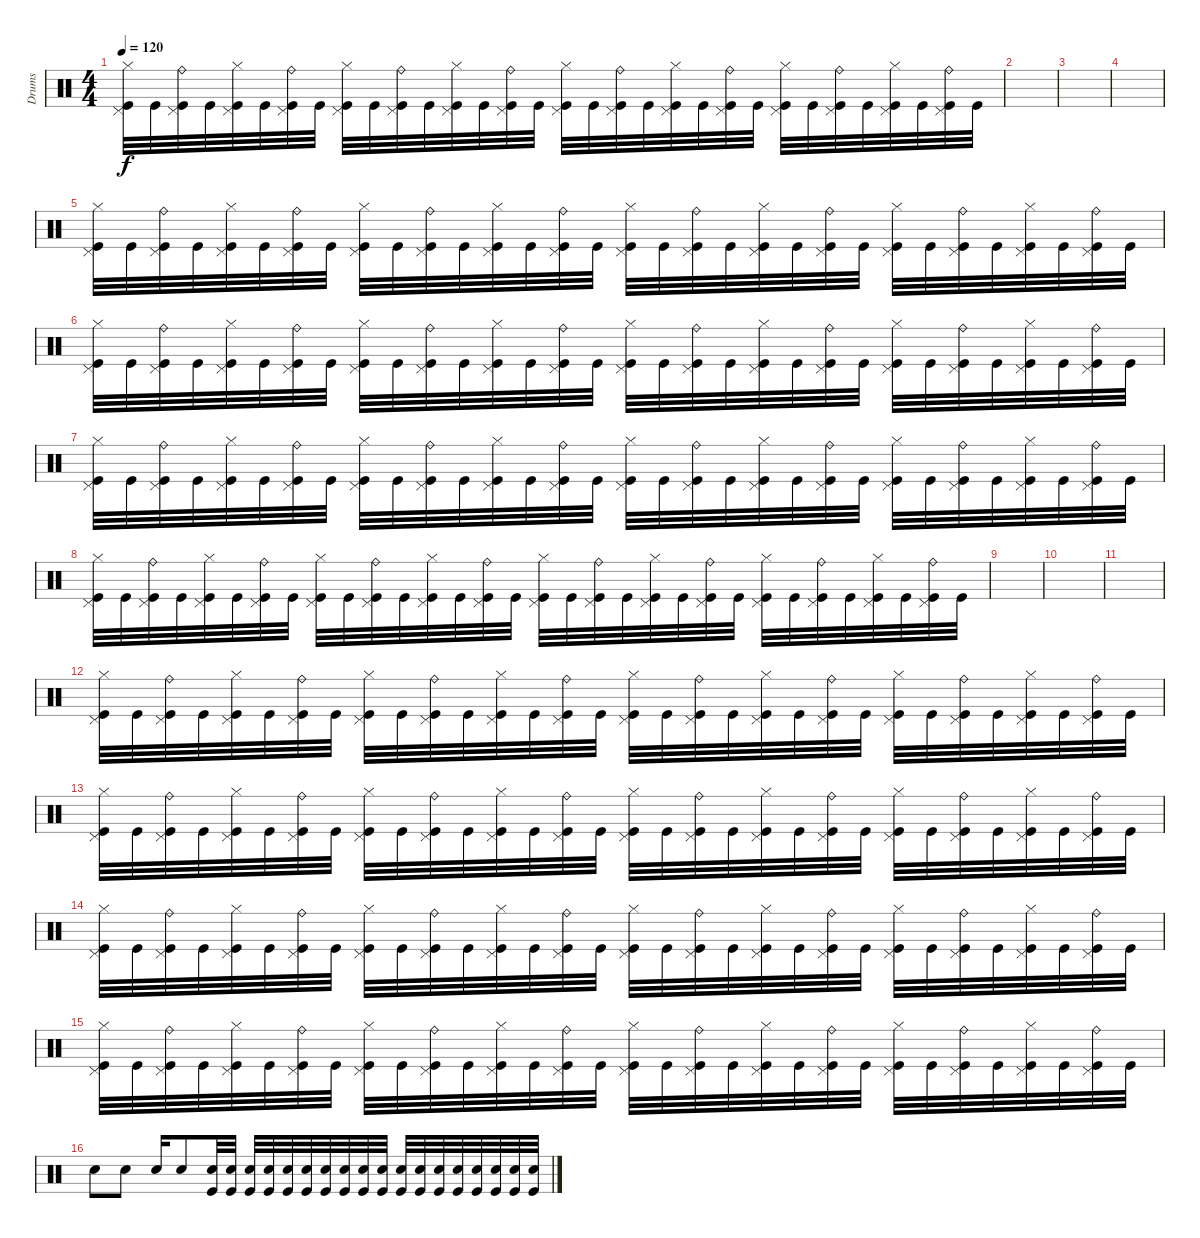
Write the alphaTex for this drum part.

\track ("Drums" "Drums") {instrument percussion}
\staff {score}
\articulation defaults
\ts (4 4)
\tempo 120
\clef neutral
\ks c
("Hi-Hat (closed)" "Pedal Hi-Hat (hit)" "Kick (hit)").32{dy f} "Kick (hit)".32 ("Ride (bell)" "Pedal Hi-Hat (hit)" "Kick (hit)").32 "Kick (hit)".32 ("Hi-Hat (closed)" "Pedal Hi-Hat (hit)" "Kick (hit)").32 "Kick (hit)".32 ("Ride (bell)" "Pedal Hi-Hat (hit)" "Kick (hit)").32 "Kick (hit)".32 ("Hi-Hat (closed)" "Pedal Hi-Hat (hit)" "Kick (hit)").32 "Kick (hit)".32 ("Ride (bell)" "Pedal Hi-Hat (hit)" "Kick (hit)").32 "Kick (hit)".32 ("Hi-Hat (closed)" "Pedal Hi-Hat (hit)" "Kick (hit)").32 "Kick (hit)".32 ("Ride (bell)" "Pedal Hi-Hat (hit)" "Kick (hit)").32 "Kick (hit)".32 ("Hi-Hat (closed)" "Pedal Hi-Hat (hit)" "Kick (hit)").32 "Kick (hit)".32 ("Ride (bell)" "Pedal Hi-Hat (hit)" "Kick (hit)").32 "Kick (hit)".32 ("Hi-Hat (closed)" "Pedal Hi-Hat (hit)" "Kick (hit)").32 "Kick (hit)".32 ("Ride (bell)" "Pedal Hi-Hat (hit)" "Kick (hit)").32 "Kick (hit)".32 ("Hi-Hat (closed)" "Pedal Hi-Hat (hit)" "Kick (hit)").32 "Kick (hit)".32 ("Ride (bell)" "Pedal Hi-Hat (hit)" "Kick (hit)").32 "Kick (hit)".32 ("Hi-Hat (closed)" "Pedal Hi-Hat (hit)" "Kick (hit)").32 "Kick (hit)".32 ("Ride (bell)" "Pedal Hi-Hat (hit)" "Kick (hit)").32 "Kick (hit)".32 |
|
|
|
("Hi-Hat (closed)" "Pedal Hi-Hat (hit)" "Kick (hit)").32 "Kick (hit)".32 ("Ride (bell)" "Pedal Hi-Hat (hit)" "Kick (hit)").32 "Kick (hit)".32 ("Hi-Hat (closed)" "Pedal Hi-Hat (hit)" "Kick (hit)").32 "Kick (hit)".32 ("Ride (bell)" "Pedal Hi-Hat (hit)" "Kick (hit)").32 "Kick (hit)".32 ("Hi-Hat (closed)" "Pedal Hi-Hat (hit)" "Kick (hit)").32 "Kick (hit)".32 ("Ride (bell)" "Pedal Hi-Hat (hit)" "Kick (hit)").32 "Kick (hit)".32 ("Hi-Hat (closed)" "Pedal Hi-Hat (hit)" "Kick (hit)").32 "Kick (hit)".32 ("Ride (bell)" "Pedal Hi-Hat (hit)" "Kick (hit)").32 "Kick (hit)".32 ("Hi-Hat (closed)" "Pedal Hi-Hat (hit)" "Kick (hit)").32 "Kick (hit)".32 ("Ride (bell)" "Pedal Hi-Hat (hit)" "Kick (hit)").32 "Kick (hit)".32 ("Hi-Hat (closed)" "Pedal Hi-Hat (hit)" "Kick (hit)").32 "Kick (hit)".32 ("Ride (bell)" "Pedal Hi-Hat (hit)" "Kick (hit)").32 "Kick (hit)".32 ("Hi-Hat (closed)" "Pedal Hi-Hat (hit)" "Kick (hit)").32 "Kick (hit)".32 ("Ride (bell)" "Pedal Hi-Hat (hit)" "Kick (hit)").32 "Kick (hit)".32 ("Hi-Hat (closed)" "Pedal Hi-Hat (hit)" "Kick (hit)").32 "Kick (hit)".32 ("Ride (bell)" "Pedal Hi-Hat (hit)" "Kick (hit)").32 "Kick (hit)".32 |
("Hi-Hat (closed)" "Pedal Hi-Hat (hit)" "Kick (hit)").32 "Kick (hit)".32 ("Ride (bell)" "Pedal Hi-Hat (hit)" "Kick (hit)").32 "Kick (hit)".32 ("Hi-Hat (closed)" "Pedal Hi-Hat (hit)" "Kick (hit)").32 "Kick (hit)".32 ("Ride (bell)" "Pedal Hi-Hat (hit)" "Kick (hit)").32 "Kick (hit)".32 ("Hi-Hat (closed)" "Pedal Hi-Hat (hit)" "Kick (hit)").32 "Kick (hit)".32 ("Ride (bell)" "Pedal Hi-Hat (hit)" "Kick (hit)").32 "Kick (hit)".32 ("Hi-Hat (closed)" "Pedal Hi-Hat (hit)" "Kick (hit)").32 "Kick (hit)".32 ("Ride (bell)" "Pedal Hi-Hat (hit)" "Kick (hit)").32 "Kick (hit)".32 ("Hi-Hat (closed)" "Pedal Hi-Hat (hit)" "Kick (hit)").32 "Kick (hit)".32 ("Ride (bell)" "Pedal Hi-Hat (hit)" "Kick (hit)").32 "Kick (hit)".32 ("Hi-Hat (closed)" "Pedal Hi-Hat (hit)" "Kick (hit)").32 "Kick (hit)".32 ("Ride (bell)" "Pedal Hi-Hat (hit)" "Kick (hit)").32 "Kick (hit)".32 ("Hi-Hat (closed)" "Pedal Hi-Hat (hit)" "Kick (hit)").32 "Kick (hit)".32 ("Ride (bell)" "Pedal Hi-Hat (hit)" "Kick (hit)").32 "Kick (hit)".32 ("Hi-Hat (closed)" "Pedal Hi-Hat (hit)" "Kick (hit)").32 "Kick (hit)".32 ("Ride (bell)" "Pedal Hi-Hat (hit)" "Kick (hit)").32 "Kick (hit)".32 |
("Hi-Hat (closed)" "Pedal Hi-Hat (hit)" "Kick (hit)").32 "Kick (hit)".32 ("Ride (bell)" "Pedal Hi-Hat (hit)" "Kick (hit)").32 "Kick (hit)".32 ("Hi-Hat (closed)" "Pedal Hi-Hat (hit)" "Kick (hit)").32 "Kick (hit)".32 ("Ride (bell)" "Pedal Hi-Hat (hit)" "Kick (hit)").32 "Kick (hit)".32 ("Hi-Hat (closed)" "Pedal Hi-Hat (hit)" "Kick (hit)").32 "Kick (hit)".32 ("Ride (bell)" "Pedal Hi-Hat (hit)" "Kick (hit)").32 "Kick (hit)".32 ("Hi-Hat (closed)" "Pedal Hi-Hat (hit)" "Kick (hit)").32 "Kick (hit)".32 ("Ride (bell)" "Pedal Hi-Hat (hit)" "Kick (hit)").32 "Kick (hit)".32 ("Hi-Hat (closed)" "Pedal Hi-Hat (hit)" "Kick (hit)").32 "Kick (hit)".32 ("Ride (bell)" "Pedal Hi-Hat (hit)" "Kick (hit)").32 "Kick (hit)".32 ("Hi-Hat (closed)" "Pedal Hi-Hat (hit)" "Kick (hit)").32 "Kick (hit)".32 ("Ride (bell)" "Pedal Hi-Hat (hit)" "Kick (hit)").32 "Kick (hit)".32 ("Hi-Hat (closed)" "Pedal Hi-Hat (hit)" "Kick (hit)").32 "Kick (hit)".32 ("Ride (bell)" "Pedal Hi-Hat (hit)" "Kick (hit)").32 "Kick (hit)".32 ("Hi-Hat (closed)" "Pedal Hi-Hat (hit)" "Kick (hit)").32 "Kick (hit)".32 ("Ride (bell)" "Pedal Hi-Hat (hit)" "Kick (hit)").32 "Kick (hit)".32 |
("Hi-Hat (closed)" "Pedal Hi-Hat (hit)" "Kick (hit)").32 "Kick (hit)".32 ("Ride (bell)" "Pedal Hi-Hat (hit)" "Kick (hit)").32 "Kick (hit)".32 ("Hi-Hat (closed)" "Pedal Hi-Hat (hit)" "Kick (hit)").32 "Kick (hit)".32 ("Ride (bell)" "Pedal Hi-Hat (hit)" "Kick (hit)").32 "Kick (hit)".32 ("Hi-Hat (closed)" "Pedal Hi-Hat (hit)" "Kick (hit)").32 "Kick (hit)".32 ("Ride (bell)" "Pedal Hi-Hat (hit)" "Kick (hit)").32 "Kick (hit)".32 ("Hi-Hat (closed)" "Pedal Hi-Hat (hit)" "Kick (hit)").32 "Kick (hit)".32 ("Ride (bell)" "Pedal Hi-Hat (hit)" "Kick (hit)").32 "Kick (hit)".32 ("Hi-Hat (closed)" "Pedal Hi-Hat (hit)" "Kick (hit)").32 "Kick (hit)".32 ("Ride (bell)" "Pedal Hi-Hat (hit)" "Kick (hit)").32 "Kick (hit)".32 ("Hi-Hat (closed)" "Pedal Hi-Hat (hit)" "Kick (hit)").32 "Kick (hit)".32 ("Ride (bell)" "Pedal Hi-Hat (hit)" "Kick (hit)").32 "Kick (hit)".32 ("Hi-Hat (closed)" "Pedal Hi-Hat (hit)" "Kick (hit)").32 "Kick (hit)".32 ("Ride (bell)" "Pedal Hi-Hat (hit)" "Kick (hit)").32 "Kick (hit)".32 ("Hi-Hat (closed)" "Pedal Hi-Hat (hit)" "Kick (hit)").32 "Kick (hit)".32 ("Ride (bell)" "Pedal Hi-Hat (hit)" "Kick (hit)").32 "Kick (hit)".32 |
|
|
|
("Hi-Hat (closed)" "Pedal Hi-Hat (hit)" "Kick (hit)").32 "Kick (hit)".32 ("Ride (bell)" "Pedal Hi-Hat (hit)" "Kick (hit)").32 "Kick (hit)".32 ("Hi-Hat (closed)" "Pedal Hi-Hat (hit)" "Kick (hit)").32 "Kick (hit)".32 ("Ride (bell)" "Pedal Hi-Hat (hit)" "Kick (hit)").32 "Kick (hit)".32 ("Hi-Hat (closed)" "Pedal Hi-Hat (hit)" "Kick (hit)").32 "Kick (hit)".32 ("Ride (bell)" "Pedal Hi-Hat (hit)" "Kick (hit)").32 "Kick (hit)".32 ("Hi-Hat (closed)" "Pedal Hi-Hat (hit)" "Kick (hit)").32 "Kick (hit)".32 ("Ride (bell)" "Pedal Hi-Hat (hit)" "Kick (hit)").32 "Kick (hit)".32 ("Hi-Hat (closed)" "Pedal Hi-Hat (hit)" "Kick (hit)").32 "Kick (hit)".32 ("Ride (bell)" "Pedal Hi-Hat (hit)" "Kick (hit)").32 "Kick (hit)".32 ("Hi-Hat (closed)" "Pedal Hi-Hat (hit)" "Kick (hit)").32 "Kick (hit)".32 ("Ride (bell)" "Pedal Hi-Hat (hit)" "Kick (hit)").32 "Kick (hit)".32 ("Hi-Hat (closed)" "Pedal Hi-Hat (hit)" "Kick (hit)").32 "Kick (hit)".32 ("Ride (bell)" "Pedal Hi-Hat (hit)" "Kick (hit)").32 "Kick (hit)".32 ("Hi-Hat (closed)" "Pedal Hi-Hat (hit)" "Kick (hit)").32 "Kick (hit)".32 ("Ride (bell)" "Pedal Hi-Hat (hit)" "Kick (hit)").32 "Kick (hit)".32 |
("Hi-Hat (closed)" "Pedal Hi-Hat (hit)" "Kick (hit)").32 "Kick (hit)".32 ("Ride (bell)" "Pedal Hi-Hat (hit)" "Kick (hit)").32 "Kick (hit)".32 ("Hi-Hat (closed)" "Pedal Hi-Hat (hit)" "Kick (hit)").32 "Kick (hit)".32 ("Ride (bell)" "Pedal Hi-Hat (hit)" "Kick (hit)").32 "Kick (hit)".32 ("Hi-Hat (closed)" "Pedal Hi-Hat (hit)" "Kick (hit)").32 "Kick (hit)".32 ("Ride (bell)" "Pedal Hi-Hat (hit)" "Kick (hit)").32 "Kick (hit)".32 ("Hi-Hat (closed)" "Pedal Hi-Hat (hit)" "Kick (hit)").32 "Kick (hit)".32 ("Ride (bell)" "Pedal Hi-Hat (hit)" "Kick (hit)").32 "Kick (hit)".32 ("Hi-Hat (closed)" "Pedal Hi-Hat (hit)" "Kick (hit)").32 "Kick (hit)".32 ("Ride (bell)" "Pedal Hi-Hat (hit)" "Kick (hit)").32 "Kick (hit)".32 ("Hi-Hat (closed)" "Pedal Hi-Hat (hit)" "Kick (hit)").32 "Kick (hit)".32 ("Ride (bell)" "Pedal Hi-Hat (hit)" "Kick (hit)").32 "Kick (hit)".32 ("Hi-Hat (closed)" "Pedal Hi-Hat (hit)" "Kick (hit)").32 "Kick (hit)".32 ("Ride (bell)" "Pedal Hi-Hat (hit)" "Kick (hit)").32 "Kick (hit)".32 ("Hi-Hat (closed)" "Pedal Hi-Hat (hit)" "Kick (hit)").32 "Kick (hit)".32 ("Ride (bell)" "Pedal Hi-Hat (hit)" "Kick (hit)").32 "Kick (hit)".32 |
("Hi-Hat (closed)" "Pedal Hi-Hat (hit)" "Kick (hit)").32 "Kick (hit)".32 ("Ride (bell)" "Pedal Hi-Hat (hit)" "Kick (hit)").32 "Kick (hit)".32 ("Hi-Hat (closed)" "Pedal Hi-Hat (hit)" "Kick (hit)").32 "Kick (hit)".32 ("Ride (bell)" "Pedal Hi-Hat (hit)" "Kick (hit)").32 "Kick (hit)".32 ("Hi-Hat (closed)" "Pedal Hi-Hat (hit)" "Kick (hit)").32 "Kick (hit)".32 ("Ride (bell)" "Pedal Hi-Hat (hit)" "Kick (hit)").32 "Kick (hit)".32 ("Hi-Hat (closed)" "Pedal Hi-Hat (hit)" "Kick (hit)").32 "Kick (hit)".32 ("Ride (bell)" "Pedal Hi-Hat (hit)" "Kick (hit)").32 "Kick (hit)".32 ("Hi-Hat (closed)" "Pedal Hi-Hat (hit)" "Kick (hit)").32 "Kick (hit)".32 ("Ride (bell)" "Pedal Hi-Hat (hit)" "Kick (hit)").32 "Kick (hit)".32 ("Hi-Hat (closed)" "Pedal Hi-Hat (hit)" "Kick (hit)").32 "Kick (hit)".32 ("Ride (bell)" "Pedal Hi-Hat (hit)" "Kick (hit)").32 "Kick (hit)".32 ("Hi-Hat (closed)" "Pedal Hi-Hat (hit)" "Kick (hit)").32 "Kick (hit)".32 ("Ride (bell)" "Pedal Hi-Hat (hit)" "Kick (hit)").32 "Kick (hit)".32 ("Hi-Hat (closed)" "Pedal Hi-Hat (hit)" "Kick (hit)").32 "Kick (hit)".32 ("Ride (bell)" "Pedal Hi-Hat (hit)" "Kick (hit)").32 "Kick (hit)".32 |
("Hi-Hat (closed)" "Pedal Hi-Hat (hit)" "Kick (hit)").32 "Kick (hit)".32 ("Ride (bell)" "Pedal Hi-Hat (hit)" "Kick (hit)").32 "Kick (hit)".32 ("Hi-Hat (closed)" "Pedal Hi-Hat (hit)" "Kick (hit)").32 "Kick (hit)".32 ("Ride (bell)" "Pedal Hi-Hat (hit)" "Kick (hit)").32 "Kick (hit)".32 ("Hi-Hat (closed)" "Pedal Hi-Hat (hit)" "Kick (hit)").32 "Kick (hit)".32 ("Ride (bell)" "Pedal Hi-Hat (hit)" "Kick (hit)").32 "Kick (hit)".32 ("Hi-Hat (closed)" "Pedal Hi-Hat (hit)" "Kick (hit)").32 "Kick (hit)".32 ("Ride (bell)" "Pedal Hi-Hat (hit)" "Kick (hit)").32 "Kick (hit)".32 ("Hi-Hat (closed)" "Pedal Hi-Hat (hit)" "Kick (hit)").32 "Kick (hit)".32 ("Ride (bell)" "Pedal Hi-Hat (hit)" "Kick (hit)").32 "Kick (hit)".32 ("Hi-Hat (closed)" "Pedal Hi-Hat (hit)" "Kick (hit)").32 "Kick (hit)".32 ("Ride (bell)" "Pedal Hi-Hat (hit)" "Kick (hit)").32 "Kick (hit)".32 ("Hi-Hat (closed)" "Pedal Hi-Hat (hit)" "Kick (hit)").32 "Kick (hit)".32 ("Ride (bell)" "Pedal Hi-Hat (hit)" "Kick (hit)").32 "Kick (hit)".32 ("Hi-Hat (closed)" "Pedal Hi-Hat (hit)" "Kick (hit)").32 "Kick (hit)".32 ("Ride (bell)" "Pedal Hi-Hat (hit)" "Kick (hit)").32 "Kick (hit)".32 |
"Electric Snare (hit)".8 "Electric Snare (hit)".8 "Electric Snare (hit)".16 "Electric Snare (hit)".8 ("Kick (hit)" "Electric Snare (hit)").32 ("Kick (hit)" "Electric Snare (hit)").32 ("Kick (hit)" "Electric Snare (hit)").32 ("Kick (hit)" "Electric Snare (hit)").32 ("Kick (hit)" "Electric Snare (hit)").32 ("Kick (hit)" "Electric Snare (hit)").32 ("Kick (hit)" "Electric Snare (hit)").32 ("Kick (hit)" "Electric Snare (hit)").32 ("Kick (hit)" "Electric Snare (hit)").32 ("Kick (hit)" "Electric Snare (hit)").32 ("Kick (hit)" "Electric Snare (hit)").32 ("Kick (hit)" "Electric Snare (hit)").32 ("Kick (hit)" "Electric Snare (hit)").32 ("Kick (hit)" "Electric Snare (hit)").32 ("Kick (hit)" "Electric Snare (hit)").32 ("Kick (hit)" "Electric Snare (hit)").32 ("Kick (hit)" "Electric Snare (hit)").32 ("Kick (hit)" "Electric Snare (hit)").32
